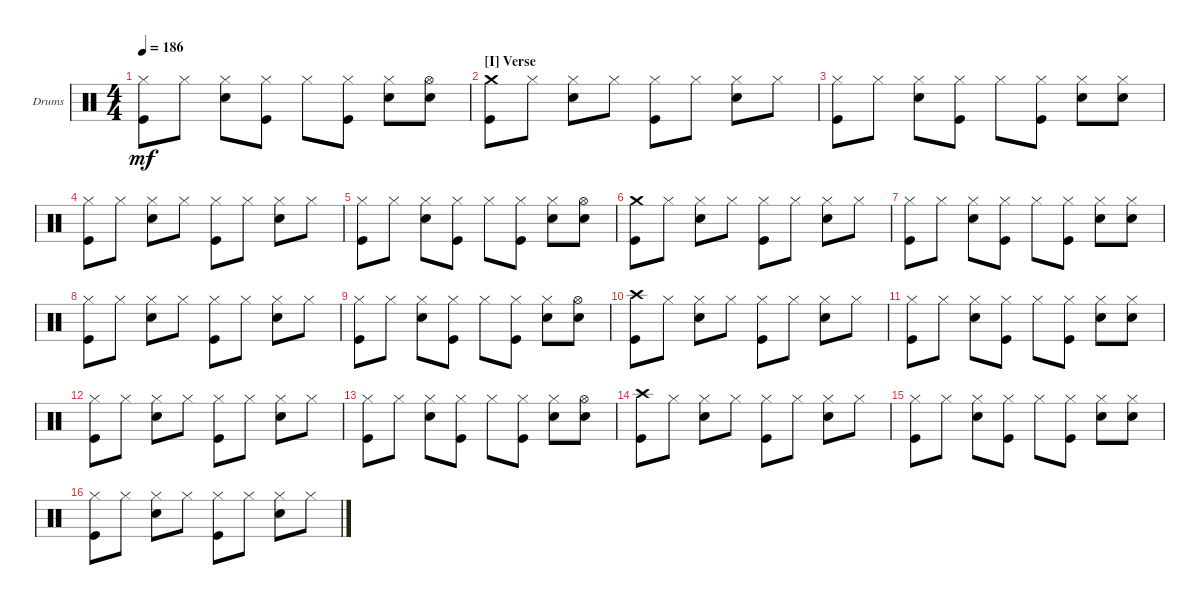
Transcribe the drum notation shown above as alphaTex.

\bracketExtendMode groupsimilarinstruments
\firstSystemTrackNameOrientation horizontal
\otherSystemsTrackNameOrientation horizontal
\track ("Drumkit" "Drums") {instrument percussion}
\staff {score}
\articulation defaults
\ts (4 4)
\tempo 186
\clef neutral
\ks c
("Hi-Hat (closed)" "Kick (hit)").8{dy mf} "Hi-Hat (closed)".8 ("Hi-Hat (closed)" "Snare (hit) 2").8 ("Hi-Hat (closed)" "Kick (hit)").8 "Hi-Hat (closed)".8 ("Hi-Hat (closed)" "Kick (hit)").8 ("Hi-Hat (closed)" "Snare (hit) 2").8 ("Hi-Hat (open)" "Snare (hit) 2").8 |
\section ("I" "Verse")
("Crash medium (hit)" "Kick (hit)").8 "Hi-Hat (closed)".8 ("Hi-Hat (closed)" "Snare (hit) 2").8 "Hi-Hat (closed)".8 ("Hi-Hat (closed)" "Kick (hit)").8 "Hi-Hat (closed)".8 ("Hi-Hat (closed)" "Snare (hit) 2").8 "Hi-Hat (closed)".8 |
("Hi-Hat (closed)" "Kick (hit)").8 "Hi-Hat (closed)".8 ("Hi-Hat (closed)" "Snare (hit) 2").8 ("Hi-Hat (closed)" "Kick (hit)").8 "Hi-Hat (closed)".8 ("Hi-Hat (closed)" "Kick (hit)").8 ("Hi-Hat (closed)" "Snare (hit) 2").8 ("Hi-Hat (closed)" "Snare (hit) 2").8 |
("Hi-Hat (closed)" "Kick (hit)").8 "Hi-Hat (closed)".8 ("Hi-Hat (closed)" "Snare (hit) 2").8 "Hi-Hat (closed)".8 ("Hi-Hat (closed)" "Kick (hit)").8 "Hi-Hat (closed)".8 ("Hi-Hat (closed)" "Snare (hit) 2").8 "Hi-Hat (closed)".8 |
("Hi-Hat (closed)" "Kick (hit)").8 "Hi-Hat (closed)".8 ("Hi-Hat (closed)" "Snare (hit) 2").8 ("Hi-Hat (closed)" "Kick (hit)").8 "Hi-Hat (closed)".8 ("Hi-Hat (closed)" "Kick (hit)").8 ("Hi-Hat (closed)" "Snare (hit) 2").8 ("Hi-Hat (open)" "Snare (hit) 2").8 |
("Crash medium (hit)" "Kick (hit)").8 "Hi-Hat (closed)".8 ("Hi-Hat (closed)" "Snare (hit) 2").8 "Hi-Hat (closed)".8 ("Hi-Hat (closed)" "Kick (hit)").8 "Hi-Hat (closed)".8 ("Hi-Hat (closed)" "Snare (hit) 2").8 "Hi-Hat (closed)".8 |
("Hi-Hat (closed)" "Kick (hit)").8 "Hi-Hat (closed)".8 ("Hi-Hat (closed)" "Snare (hit) 2").8 ("Hi-Hat (closed)" "Kick (hit)").8 "Hi-Hat (closed)".8 ("Hi-Hat (closed)" "Kick (hit)").8 ("Hi-Hat (closed)" "Snare (hit) 2").8 ("Hi-Hat (closed)" "Snare (hit) 2").8 |
("Hi-Hat (closed)" "Kick (hit)").8 "Hi-Hat (closed)".8 ("Hi-Hat (closed)" "Snare (hit) 2").8 "Hi-Hat (closed)".8 ("Hi-Hat (closed)" "Kick (hit)").8 "Hi-Hat (closed)".8 ("Hi-Hat (closed)" "Snare (hit) 2").8 "Hi-Hat (closed)".8 |
("Hi-Hat (closed)" "Kick (hit)").8 "Hi-Hat (closed)".8 ("Hi-Hat (closed)" "Snare (hit) 2").8 ("Hi-Hat (closed)" "Kick (hit)").8 "Hi-Hat (closed)".8 ("Hi-Hat (closed)" "Kick (hit)").8 ("Hi-Hat (closed)" "Snare (hit) 2").8 ("Hi-Hat (open)" "Snare (hit) 2").8 |
("Crash high (hit)" "Kick (hit)").8 "Hi-Hat (closed)".8 ("Hi-Hat (closed)" "Snare (hit) 2").8 "Hi-Hat (closed)".8 ("Hi-Hat (closed)" "Kick (hit)").8 "Hi-Hat (closed)".8 ("Hi-Hat (closed)" "Snare (hit) 2").8 "Hi-Hat (closed)".8 |
("Hi-Hat (closed)" "Kick (hit)").8 "Hi-Hat (closed)".8 ("Hi-Hat (closed)" "Snare (hit) 2").8 ("Hi-Hat (closed)" "Kick (hit)").8 "Hi-Hat (closed)".8 ("Hi-Hat (closed)" "Kick (hit)").8 ("Hi-Hat (closed)" "Snare (hit) 2").8 ("Hi-Hat (closed)" "Snare (hit) 2").8 |
("Hi-Hat (closed)" "Kick (hit)").8 "Hi-Hat (closed)".8 ("Hi-Hat (closed)" "Snare (hit) 2").8 "Hi-Hat (closed)".8 ("Hi-Hat (closed)" "Kick (hit)").8 "Hi-Hat (closed)".8 ("Hi-Hat (closed)" "Snare (hit) 2").8 "Hi-Hat (closed)".8 |
("Hi-Hat (closed)" "Kick (hit)").8 "Hi-Hat (closed)".8 ("Hi-Hat (closed)" "Snare (hit) 2").8 ("Hi-Hat (closed)" "Kick (hit)").8 "Hi-Hat (closed)".8 ("Hi-Hat (closed)" "Kick (hit)").8 ("Hi-Hat (closed)" "Snare (hit) 2").8 ("Hi-Hat (open)" "Snare (hit) 2").8 |
("Crash high (hit)" "Kick (hit)").8 "Hi-Hat (closed)".8 ("Hi-Hat (closed)" "Snare (hit) 2").8 "Hi-Hat (closed)".8 ("Hi-Hat (closed)" "Kick (hit)").8 "Hi-Hat (closed)".8 ("Hi-Hat (closed)" "Snare (hit) 2").8 "Hi-Hat (closed)".8 |
("Hi-Hat (closed)" "Kick (hit)").8 "Hi-Hat (closed)".8 ("Hi-Hat (closed)" "Snare (hit) 2").8 ("Hi-Hat (closed)" "Kick (hit)").8 "Hi-Hat (closed)".8 ("Hi-Hat (closed)" "Kick (hit)").8 ("Hi-Hat (closed)" "Snare (hit) 2").8 ("Hi-Hat (closed)" "Snare (hit) 2").8 |
("Hi-Hat (closed)" "Kick (hit)").8 "Hi-Hat (closed)".8 ("Hi-Hat (closed)" "Snare (hit) 2").8 "Hi-Hat (closed)".8 ("Hi-Hat (closed)" "Kick (hit)").8 "Hi-Hat (closed)".8 ("Hi-Hat (closed)" "Snare (hit) 2").8 "Hi-Hat (closed)".8
